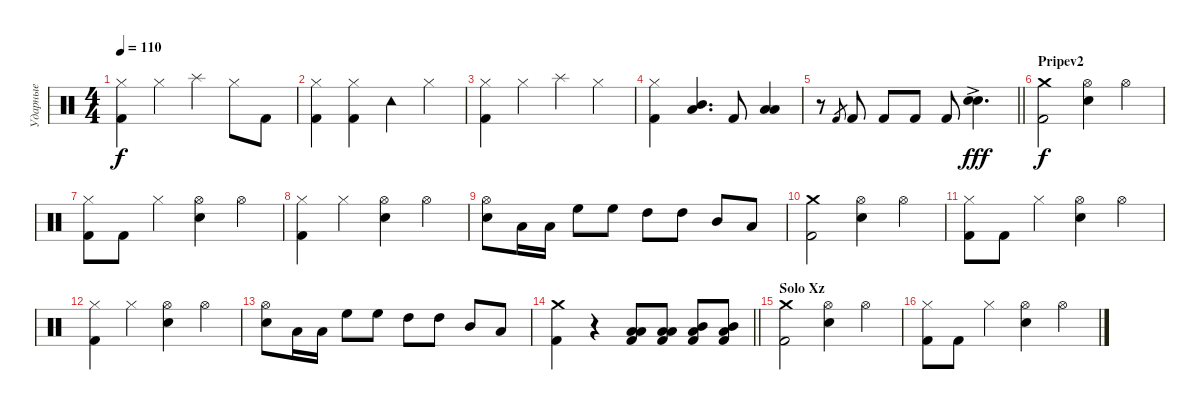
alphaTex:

\track ("Ударные" "Ударные") {instrument percussion}
\staff {score}
\articulation defaults
\ts (4 4)
\tempo 110
\clef neutral
\ks c
("Kick (hit) 2" "Hi-Hat (closed)").4{dy f} "Hi-Hat (closed)".4 "Splash (hit)".4 "Hi-Hat (closed)".8 "Kick (hit) 2".8 |
("Kick (hit) 2" "Hi-Hat (closed)").4 ("Kick (hit) 2" "Hi-Hat (closed)").4 "Tambourine (hit)".4 "Hi-Hat (closed)".4 |
("Hi-Hat (closed)" "Kick (hit) 2").4 "Hi-Hat (closed)".4 "Splash (hit)".4 "Hi-Hat (closed)".4 |
("Hi-Hat (closed)" "Kick (hit) 2").4 ("Mid Tom (hit)" "Low Tom (hit)").4{d} "Kick (hit) 2".8 ("Low Floor Tom (hit)" "Low Tom (hit)").4 |
\barLineRight lightlight
r.8 "Kick (hit) 2".8{gr} "Kick (hit) 2".8 "Kick (hit) 2".8 "Kick (hit) 2".8 "Kick (hit) 2".8 ("Snare (hit) 2" "Snare (hit) 2"{ac}).4{d dy fff} |
\section ("" "Pripev2")
("Crash medium (hit)" "Kick (hit) 2").2{dy f} ("Hi-Hat (open)" "Snare (hit) 2").4 "Hi-Hat (open)".4 |
("Hi-Hat (closed)" "Kick (hit) 2").8 "Kick (hit) 2".8 "Hi-Hat (closed)".4 ("Hi-Hat (open)" "Snare (hit) 2").4 "Hi-Hat (open)".4 |
("Hi-Hat (closed)" "Kick (hit) 2").4 "Hi-Hat (closed)".4 ("Hi-Hat (open)" "Snare (hit) 2").4 "Hi-Hat (open)".4 |
("Hi-Hat (open)" "Snare (hit) 2").8 "Low Tom (hit)".16 "Low Tom (hit)".16 "High Floor Tom (hit)".8 "High Floor Tom (hit)".8 "High Tom (hit)".8 "High Tom (hit)".8 "Mid Tom (hit)".8 "Low Tom (hit)".8 |
("Crash medium (hit)" "Kick (hit) 2").2 ("Hi-Hat (open)" "Snare (hit) 2").4 "Hi-Hat (open)".4 |
("Hi-Hat (closed)" "Kick (hit) 2").8 "Kick (hit) 2".8 "Hi-Hat (closed)".4 ("Hi-Hat (open)" "Snare (hit) 2").4 "Hi-Hat (open)".4 |
("Hi-Hat (closed)" "Kick (hit) 2").4 "Hi-Hat (closed)".4 ("Hi-Hat (open)" "Snare (hit) 2").4 "Hi-Hat (open)".4 |
("Hi-Hat (open)" "Snare (hit) 2").8 "Low Tom (hit)".16 "Low Tom (hit)".16 "High Floor Tom (hit)".8 "High Floor Tom (hit)".8 "High Tom (hit)".8 "High Tom (hit)".8 "Mid Tom (hit)".8 "Low Tom (hit)".8 |
\barLineRight lightlight
("Crash medium (hit)" "Kick (hit) 2").4 r.4 ("Low Tom (hit)" "Low Tom (hit)" "Kick (hit) 2").8 ("Low Tom (hit)" "Low Tom (hit)" "Kick (hit) 2").8 ("Mid Tom (hit)" "Low Tom (hit)" "Kick (hit) 2").8 ("Mid Tom (hit)" "Low Tom (hit)" "Kick (hit) 2").8 |
\section ("" "Solo Xz")
("Crash medium (hit)" "Kick (hit) 2").2 ("Hi-Hat (open)" "Snare (hit) 2").4 "Hi-Hat (open)".4 |
("Hi-Hat (closed)" "Kick (hit) 2").8 "Kick (hit) 2".8 "Hi-Hat (closed)".4 ("Hi-Hat (open)" "Snare (hit) 2").4 "Hi-Hat (open)".4
